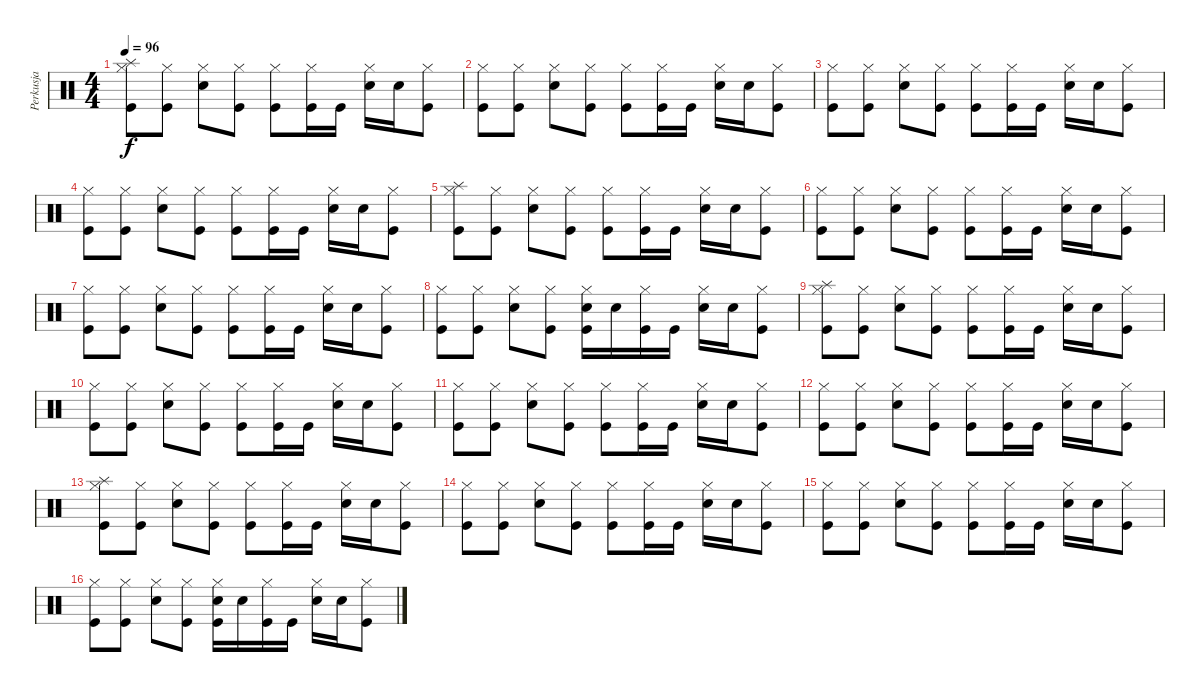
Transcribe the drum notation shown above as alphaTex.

\track ("Perkusja" "Perkusja") {instrument percussion}
\staff {score}
\articulation defaults
\ts (4 4)
\tempo 96
\clef neutral
\ks c
("Splash (hit)" "Hi-Hat (closed)" "Kick (hit)").8{dy f} ("Hi-Hat (closed)" "Kick (hit)").8 ("Electric Snare (hit)" "Hi-Hat (closed)").8 ("Hi-Hat (closed)" "Kick (hit)").8 ("Hi-Hat (closed)" "Kick (hit)").8 ("Hi-Hat (closed)" "Kick (hit)").16 "Kick (hit)".16 ("Electric Snare (hit)" "Hi-Hat (closed)").16 "Electric Snare (hit)".16 ("Hi-Hat (closed)" "Kick (hit)").8 |
("Hi-Hat (closed)" "Kick (hit)").8 ("Hi-Hat (closed)" "Kick (hit)").8 ("Electric Snare (hit)" "Hi-Hat (closed)").8 ("Hi-Hat (closed)" "Kick (hit)").8 ("Hi-Hat (closed)" "Kick (hit)").8 ("Hi-Hat (closed)" "Kick (hit)").16 "Kick (hit)".16 ("Electric Snare (hit)" "Hi-Hat (closed)").16 "Electric Snare (hit)".16 ("Hi-Hat (closed)" "Kick (hit)").8 |
("Hi-Hat (closed)" "Kick (hit)").8 ("Hi-Hat (closed)" "Kick (hit)").8 ("Electric Snare (hit)" "Hi-Hat (closed)").8 ("Hi-Hat (closed)" "Kick (hit)").8 ("Hi-Hat (closed)" "Kick (hit)").8 ("Hi-Hat (closed)" "Kick (hit)").16 "Kick (hit)".16 ("Electric Snare (hit)" "Hi-Hat (closed)").16 "Electric Snare (hit)".16 ("Hi-Hat (closed)" "Kick (hit)").8 |
("Hi-Hat (closed)" "Kick (hit)").8 ("Hi-Hat (closed)" "Kick (hit)").8 ("Electric Snare (hit)" "Hi-Hat (closed)").8 ("Hi-Hat (closed)" "Kick (hit)").8 ("Hi-Hat (closed)" "Kick (hit)").8 ("Hi-Hat (closed)" "Kick (hit)").16 "Kick (hit)".16 ("Electric Snare (hit)" "Hi-Hat (closed)").16 "Electric Snare (hit)".16 ("Hi-Hat (closed)" "Kick (hit)").8 |
("Splash (hit)" "Hi-Hat (closed)" "Kick (hit)").8 ("Hi-Hat (closed)" "Kick (hit)").8 ("Electric Snare (hit)" "Hi-Hat (closed)").8 ("Hi-Hat (closed)" "Kick (hit)").8 ("Hi-Hat (closed)" "Kick (hit)").8 ("Hi-Hat (closed)" "Kick (hit)").16 "Kick (hit)".16 ("Electric Snare (hit)" "Hi-Hat (closed)").16 "Electric Snare (hit)".16 ("Hi-Hat (closed)" "Kick (hit)").8 |
("Hi-Hat (closed)" "Kick (hit)").8 ("Hi-Hat (closed)" "Kick (hit)").8 ("Electric Snare (hit)" "Hi-Hat (closed)").8 ("Hi-Hat (closed)" "Kick (hit)").8 ("Hi-Hat (closed)" "Kick (hit)").8 ("Hi-Hat (closed)" "Kick (hit)").16 "Kick (hit)".16 ("Electric Snare (hit)" "Hi-Hat (closed)").16 "Electric Snare (hit)".16 ("Hi-Hat (closed)" "Kick (hit)").8 |
("Hi-Hat (closed)" "Kick (hit)").8 ("Hi-Hat (closed)" "Kick (hit)").8 ("Electric Snare (hit)" "Hi-Hat (closed)").8 ("Hi-Hat (closed)" "Kick (hit)").8 ("Hi-Hat (closed)" "Kick (hit)").8 ("Hi-Hat (closed)" "Kick (hit)").16 "Kick (hit)".16 ("Electric Snare (hit)" "Hi-Hat (closed)").16 "Electric Snare (hit)".16 ("Hi-Hat (closed)" "Kick (hit)").8 |
("Hi-Hat (closed)" "Kick (hit)").8 ("Hi-Hat (closed)" "Kick (hit)").8 ("Electric Snare (hit)" "Hi-Hat (closed)").8 ("Hi-Hat (closed)" "Kick (hit)").8 ("Electric Snare (hit)" "Hi-Hat (closed)" "Kick (hit)").16 "Electric Snare (hit)".16 ("Hi-Hat (closed)" "Kick (hit)").16 "Kick (hit)".16 ("Electric Snare (hit)" "Hi-Hat (closed)").16 "Electric Snare (hit)".16 ("Hi-Hat (closed)" "Kick (hit)").8 |
("Splash (hit)" "Hi-Hat (closed)" "Kick (hit)").8 ("Hi-Hat (closed)" "Kick (hit)").8 ("Electric Snare (hit)" "Hi-Hat (closed)").8 ("Hi-Hat (closed)" "Kick (hit)").8 ("Hi-Hat (closed)" "Kick (hit)").8 ("Hi-Hat (closed)" "Kick (hit)").16 "Kick (hit)".16 ("Electric Snare (hit)" "Hi-Hat (closed)").16 "Electric Snare (hit)".16 ("Hi-Hat (closed)" "Kick (hit)").8 |
("Hi-Hat (closed)" "Kick (hit)").8 ("Hi-Hat (closed)" "Kick (hit)").8 ("Electric Snare (hit)" "Hi-Hat (closed)").8 ("Hi-Hat (closed)" "Kick (hit)").8 ("Hi-Hat (closed)" "Kick (hit)").8 ("Hi-Hat (closed)" "Kick (hit)").16 "Kick (hit)".16 ("Electric Snare (hit)" "Hi-Hat (closed)").16 "Electric Snare (hit)".16 ("Hi-Hat (closed)" "Kick (hit)").8 |
("Hi-Hat (closed)" "Kick (hit)").8 ("Hi-Hat (closed)" "Kick (hit)").8 ("Electric Snare (hit)" "Hi-Hat (closed)").8 ("Hi-Hat (closed)" "Kick (hit)").8 ("Hi-Hat (closed)" "Kick (hit)").8 ("Hi-Hat (closed)" "Kick (hit)").16 "Kick (hit)".16 ("Electric Snare (hit)" "Hi-Hat (closed)").16 "Electric Snare (hit)".16 ("Hi-Hat (closed)" "Kick (hit)").8 |
("Hi-Hat (closed)" "Kick (hit)").8 ("Hi-Hat (closed)" "Kick (hit)").8 ("Electric Snare (hit)" "Hi-Hat (closed)").8 ("Hi-Hat (closed)" "Kick (hit)").8 ("Hi-Hat (closed)" "Kick (hit)").8 ("Hi-Hat (closed)" "Kick (hit)").16 "Kick (hit)".16 ("Electric Snare (hit)" "Hi-Hat (closed)").16 "Electric Snare (hit)".16 ("Hi-Hat (closed)" "Kick (hit)").8 |
("Splash (hit)" "Hi-Hat (closed)" "Kick (hit)").8 ("Hi-Hat (closed)" "Kick (hit)").8 ("Electric Snare (hit)" "Hi-Hat (closed)").8 ("Hi-Hat (closed)" "Kick (hit)").8 ("Hi-Hat (closed)" "Kick (hit)").8 ("Hi-Hat (closed)" "Kick (hit)").16 "Kick (hit)".16 ("Electric Snare (hit)" "Hi-Hat (closed)").16 "Electric Snare (hit)".16 ("Hi-Hat (closed)" "Kick (hit)").8 |
("Hi-Hat (closed)" "Kick (hit)").8 ("Hi-Hat (closed)" "Kick (hit)").8 ("Electric Snare (hit)" "Hi-Hat (closed)").8 ("Hi-Hat (closed)" "Kick (hit)").8 ("Hi-Hat (closed)" "Kick (hit)").8 ("Hi-Hat (closed)" "Kick (hit)").16 "Kick (hit)".16 ("Electric Snare (hit)" "Hi-Hat (closed)").16 "Electric Snare (hit)".16 ("Hi-Hat (closed)" "Kick (hit)").8 |
("Hi-Hat (closed)" "Kick (hit)").8 ("Hi-Hat (closed)" "Kick (hit)").8 ("Electric Snare (hit)" "Hi-Hat (closed)").8 ("Hi-Hat (closed)" "Kick (hit)").8 ("Hi-Hat (closed)" "Kick (hit)").8 ("Hi-Hat (closed)" "Kick (hit)").16 "Kick (hit)".16 ("Electric Snare (hit)" "Hi-Hat (closed)").16 "Electric Snare (hit)".16 ("Hi-Hat (closed)" "Kick (hit)").8 |
("Hi-Hat (closed)" "Kick (hit)").8 ("Hi-Hat (closed)" "Kick (hit)").8 ("Electric Snare (hit)" "Hi-Hat (closed)").8 ("Hi-Hat (closed)" "Kick (hit)").8 ("Electric Snare (hit)" "Hi-Hat (closed)" "Kick (hit)").16 "Electric Snare (hit)".16 ("Hi-Hat (closed)" "Kick (hit)").16 "Kick (hit)".16 ("Electric Snare (hit)" "Hi-Hat (closed)").16 "Electric Snare (hit)".16 ("Hi-Hat (closed)" "Kick (hit)").8
